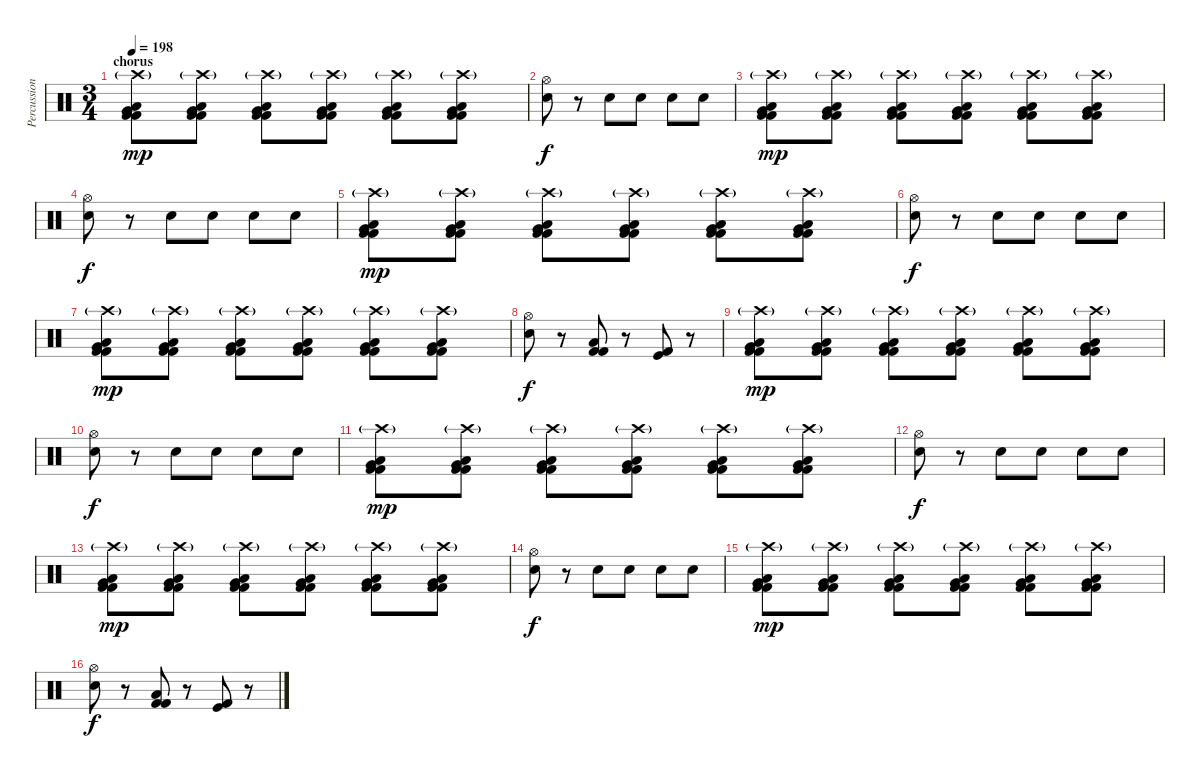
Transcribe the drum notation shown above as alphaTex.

\track ("Percussions" "Percussion") {instrument percussion}
\staff {score}
\articulation defaults
\ts (3 4)
\section ("" "chorus")
\tempo 198
\clef neutral
\ks c
("Low Floor Tom (hit)" "Kick (hit) 2" "Kick (hit) 2" "Very Low Tom (hit)" "Crash high (hit)"{g}).8{dy mp} ("Low Floor Tom (hit)" "Kick (hit) 2" "Kick (hit) 2" "Very Low Tom (hit)" "Crash high (hit)"{g}).8 ("Low Floor Tom (hit)" "Kick (hit) 2" "Kick (hit) 2" "Very Low Tom (hit)" "Crash high (hit)"{g}).8 ("Low Floor Tom (hit)" "Kick (hit) 2" "Kick (hit) 2" "Very Low Tom (hit)" "Crash high (hit)"{g}).8 ("Low Floor Tom (hit)" "Kick (hit) 2" "Kick (hit) 2" "Very Low Tom (hit)" "Crash high (hit)"{g}).8 ("Low Floor Tom (hit)" "Kick (hit) 2" "Kick (hit) 2" "Very Low Tom (hit)" "Crash high (hit)"{g}).8 |
("Electric Snare (hit)" "Hi-Hat (open)").8{dy f} r.8 "Electric Snare (hit)".8 "Electric Snare (hit)".8 "Electric Snare (hit)".8 "Electric Snare (hit)".8 |
("Low Floor Tom (hit)" "Kick (hit) 2" "Kick (hit) 2" "Very Low Tom (hit)" "Crash high (hit)"{g}).8{dy mp} ("Low Floor Tom (hit)" "Kick (hit) 2" "Kick (hit) 2" "Very Low Tom (hit)" "Crash high (hit)"{g}).8 ("Low Floor Tom (hit)" "Kick (hit) 2" "Kick (hit) 2" "Very Low Tom (hit)" "Crash high (hit)"{g}).8 ("Low Floor Tom (hit)" "Kick (hit) 2" "Kick (hit) 2" "Very Low Tom (hit)" "Crash high (hit)"{g}).8 ("Low Floor Tom (hit)" "Kick (hit) 2" "Kick (hit) 2" "Very Low Tom (hit)" "Crash high (hit)"{g}).8 ("Low Floor Tom (hit)" "Kick (hit) 2" "Kick (hit) 2" "Very Low Tom (hit)" "Crash high (hit)"{g}).8 |
("Electric Snare (hit)" "Hi-Hat (open)").8{dy f} r.8 "Electric Snare (hit)".8 "Electric Snare (hit)".8 "Electric Snare (hit)".8 "Electric Snare (hit)".8 |
("Low Floor Tom (hit)" "Kick (hit) 2" "Kick (hit) 2" "Very Low Tom (hit)" "Crash high (hit)"{g}).8{dy mp} ("Low Floor Tom (hit)" "Kick (hit) 2" "Kick (hit) 2" "Very Low Tom (hit)" "Crash high (hit)"{g}).8 ("Low Floor Tom (hit)" "Kick (hit) 2" "Kick (hit) 2" "Very Low Tom (hit)" "Crash high (hit)"{g}).8 ("Low Floor Tom (hit)" "Kick (hit) 2" "Kick (hit) 2" "Very Low Tom (hit)" "Crash high (hit)"{g}).8 ("Low Floor Tom (hit)" "Kick (hit) 2" "Kick (hit) 2" "Very Low Tom (hit)" "Crash high (hit)"{g}).8 ("Low Floor Tom (hit)" "Kick (hit) 2" "Kick (hit) 2" "Very Low Tom (hit)" "Crash high (hit)"{g}).8 |
("Electric Snare (hit)" "Hi-Hat (open)").8{dy f} r.8 "Electric Snare (hit)".8 "Electric Snare (hit)".8 "Electric Snare (hit)".8 "Electric Snare (hit)".8 |
("Low Floor Tom (hit)" "Kick (hit) 2" "Kick (hit) 2" "Very Low Tom (hit)" "Crash high (hit)"{g}).8{dy mp} ("Low Floor Tom (hit)" "Kick (hit) 2" "Kick (hit) 2" "Very Low Tom (hit)" "Crash high (hit)"{g}).8 ("Low Floor Tom (hit)" "Kick (hit) 2" "Kick (hit) 2" "Very Low Tom (hit)" "Crash high (hit)"{g}).8 ("Low Floor Tom (hit)" "Kick (hit) 2" "Kick (hit) 2" "Very Low Tom (hit)" "Crash high (hit)"{g}).8 ("Low Floor Tom (hit)" "Kick (hit) 2" "Kick (hit) 2" "Very Low Tom (hit)" "Crash high (hit)"{g}).8 ("Low Floor Tom (hit)" "Kick (hit) 2" "Kick (hit) 2" "Very Low Tom (hit)" "Crash high (hit)"{g}).8 |
("Electric Snare (hit)" "Hi-Hat (open)").8{dy f} r.8 ("Low Floor Tom (hit)" "Kick (hit) 2" "Kick (hit) 2").8 r.8 ("Kick (hit)" "Kick (hit) 2").8 r.8 |
("Low Floor Tom (hit)" "Kick (hit) 2" "Kick (hit) 2" "Very Low Tom (hit)" "Crash high (hit)"{g}).8{dy mp} ("Low Floor Tom (hit)" "Kick (hit) 2" "Kick (hit) 2" "Very Low Tom (hit)" "Crash high (hit)"{g}).8 ("Low Floor Tom (hit)" "Kick (hit) 2" "Kick (hit) 2" "Very Low Tom (hit)" "Crash high (hit)"{g}).8 ("Low Floor Tom (hit)" "Kick (hit) 2" "Kick (hit) 2" "Very Low Tom (hit)" "Crash high (hit)"{g}).8 ("Low Floor Tom (hit)" "Kick (hit) 2" "Kick (hit) 2" "Very Low Tom (hit)" "Crash high (hit)"{g}).8 ("Low Floor Tom (hit)" "Kick (hit) 2" "Kick (hit) 2" "Very Low Tom (hit)" "Crash high (hit)"{g}).8 |
("Electric Snare (hit)" "Hi-Hat (open)").8{dy f} r.8 "Electric Snare (hit)".8 "Electric Snare (hit)".8 "Electric Snare (hit)".8 "Electric Snare (hit)".8 |
("Low Floor Tom (hit)" "Kick (hit) 2" "Kick (hit) 2" "Very Low Tom (hit)" "Crash high (hit)"{g}).8{dy mp} ("Low Floor Tom (hit)" "Kick (hit) 2" "Kick (hit) 2" "Very Low Tom (hit)" "Crash high (hit)"{g}).8 ("Low Floor Tom (hit)" "Kick (hit) 2" "Kick (hit) 2" "Very Low Tom (hit)" "Crash high (hit)"{g}).8 ("Low Floor Tom (hit)" "Kick (hit) 2" "Kick (hit) 2" "Very Low Tom (hit)" "Crash high (hit)"{g}).8 ("Low Floor Tom (hit)" "Kick (hit) 2" "Kick (hit) 2" "Very Low Tom (hit)" "Crash high (hit)"{g}).8 ("Low Floor Tom (hit)" "Kick (hit) 2" "Kick (hit) 2" "Very Low Tom (hit)" "Crash high (hit)"{g}).8 |
("Electric Snare (hit)" "Hi-Hat (open)").8{dy f} r.8 "Electric Snare (hit)".8 "Electric Snare (hit)".8 "Electric Snare (hit)".8 "Electric Snare (hit)".8 |
("Low Floor Tom (hit)" "Kick (hit) 2" "Kick (hit) 2" "Very Low Tom (hit)" "Crash high (hit)"{g}).8{dy mp} ("Low Floor Tom (hit)" "Kick (hit) 2" "Kick (hit) 2" "Very Low Tom (hit)" "Crash high (hit)"{g}).8 ("Low Floor Tom (hit)" "Kick (hit) 2" "Kick (hit) 2" "Very Low Tom (hit)" "Crash high (hit)"{g}).8 ("Low Floor Tom (hit)" "Kick (hit) 2" "Kick (hit) 2" "Very Low Tom (hit)" "Crash high (hit)"{g}).8 ("Low Floor Tom (hit)" "Kick (hit) 2" "Kick (hit) 2" "Very Low Tom (hit)" "Crash high (hit)"{g}).8 ("Low Floor Tom (hit)" "Kick (hit) 2" "Kick (hit) 2" "Very Low Tom (hit)" "Crash high (hit)"{g}).8 |
("Electric Snare (hit)" "Hi-Hat (open)").8{dy f} r.8 "Electric Snare (hit)".8 "Electric Snare (hit)".8 "Electric Snare (hit)".8 "Electric Snare (hit)".8 |
("Low Floor Tom (hit)" "Kick (hit) 2" "Kick (hit) 2" "Very Low Tom (hit)" "Crash high (hit)"{g}).8{dy mp} ("Low Floor Tom (hit)" "Kick (hit) 2" "Kick (hit) 2" "Very Low Tom (hit)" "Crash high (hit)"{g}).8 ("Low Floor Tom (hit)" "Kick (hit) 2" "Kick (hit) 2" "Very Low Tom (hit)" "Crash high (hit)"{g}).8 ("Low Floor Tom (hit)" "Kick (hit) 2" "Kick (hit) 2" "Very Low Tom (hit)" "Crash high (hit)"{g}).8 ("Low Floor Tom (hit)" "Kick (hit) 2" "Kick (hit) 2" "Very Low Tom (hit)" "Crash high (hit)"{g}).8 ("Low Floor Tom (hit)" "Kick (hit) 2" "Kick (hit) 2" "Very Low Tom (hit)" "Crash high (hit)"{g}).8 |
("Electric Snare (hit)" "Hi-Hat (open)").8{dy f} r.8 ("Low Floor Tom (hit)" "Kick (hit) 2" "Kick (hit) 2").8 r.8 ("Kick (hit)" "Kick (hit) 2").8 r.8
